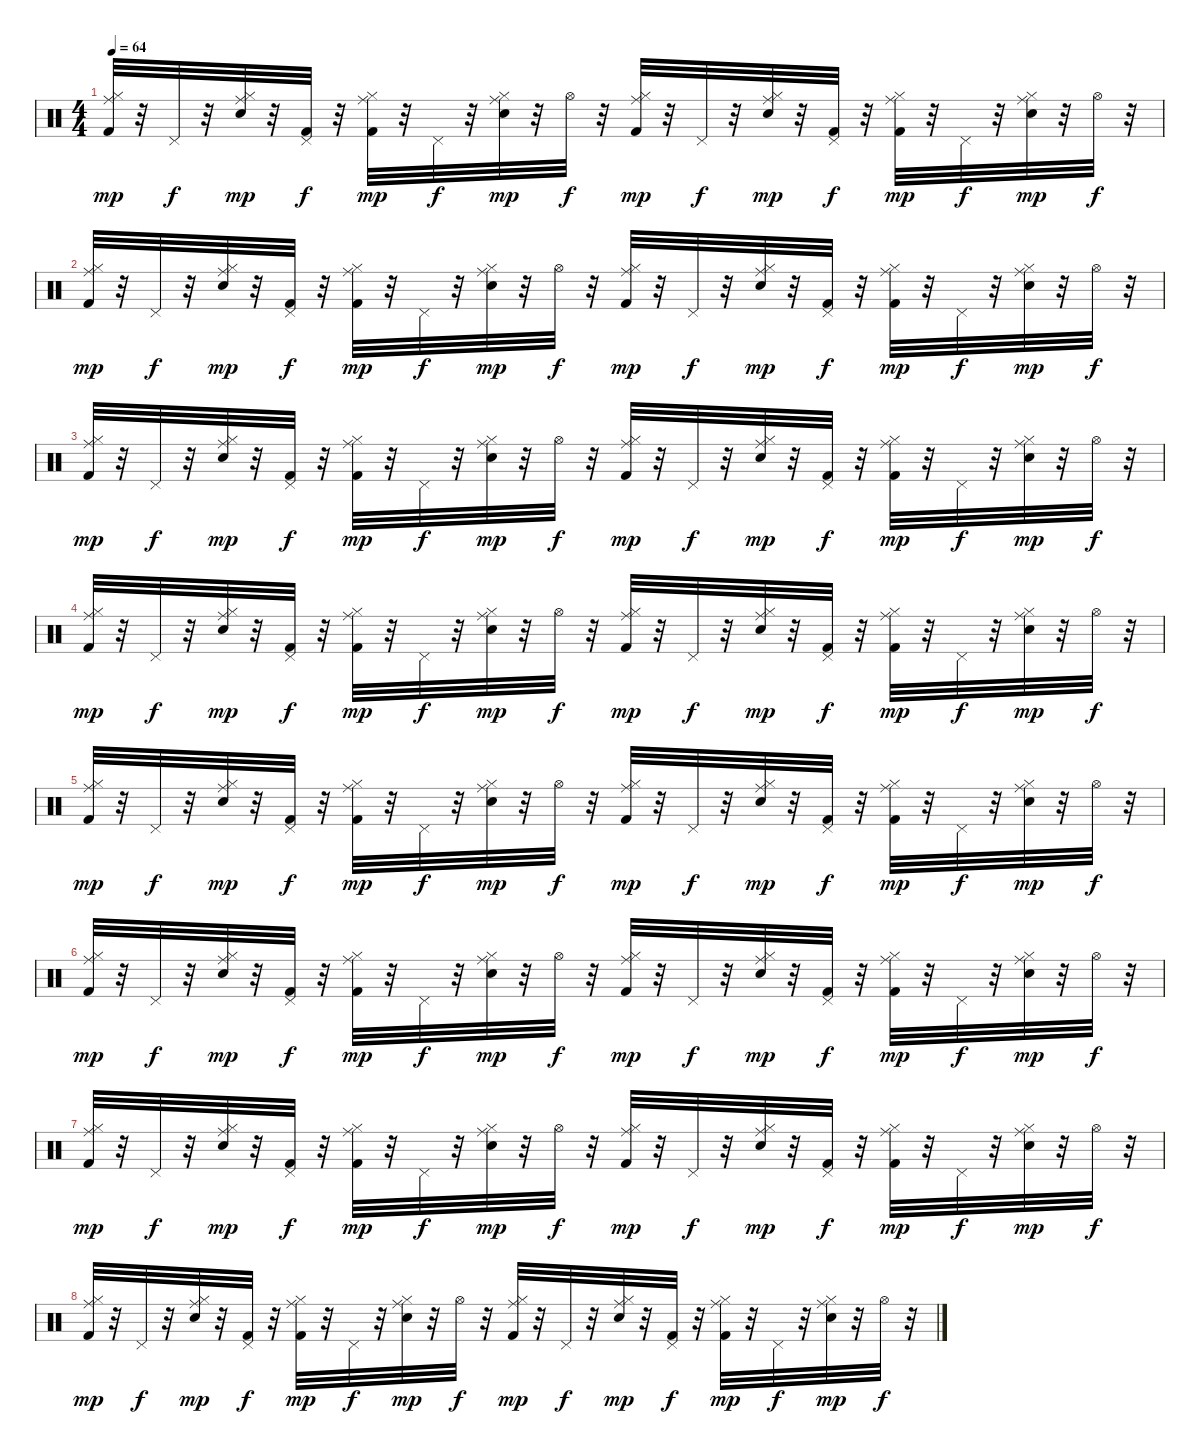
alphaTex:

\track "" {instrument percussion}
\staff {score}
\articulation defaults
\ts (4 4)
\tempo 64
\clef neutral
\ks c
("Ride (middle)" "Hi-Hat (closed)" "Kick (hit) 2").32{dy mp} r.32 "Pedal Hi-Hat (hit)".32{dy f} r.32 ("Ride (middle)" "Hi-Hat (closed)" "Snare (hit) 2").32{dy mp} r.32 ("Pedal Hi-Hat (hit)" "Kick (hit) 2").32{dy f} r.32 ("Ride (middle)" "Hi-Hat (closed)" "Kick (hit) 2").32{dy mp} r.32 "Pedal Hi-Hat (hit)".32{dy f} r.32 ("Snare (hit) 2" "Ride (middle)" "Hi-Hat (closed)").32{dy mp} r.32 "Hi-Hat (open)".32{dy f} r.32 ("Kick (hit) 2" "Hi-Hat (closed)" "Ride (middle)").32{dy mp} r.32 "Pedal Hi-Hat (hit)".32{dy f} r.32 ("Snare (hit) 2" "Hi-Hat (closed)" "Ride (middle)").32{dy mp} r.32 ("Kick (hit) 2" "Pedal Hi-Hat (hit)").32{dy f} r.32 ("Kick (hit) 2" "Hi-Hat (closed)" "Ride (middle)").32{dy mp} r.32 "Pedal Hi-Hat (hit)".32{dy f} r.32 ("Snare (hit) 2" "Hi-Hat (closed)" "Ride (middle)").32{dy mp} r.32 "Hi-Hat (open)".32{dy f} r.32 |
("Ride (middle)" "Hi-Hat (closed)" "Kick (hit) 2").32{dy mp} r.32 "Pedal Hi-Hat (hit)".32{dy f} r.32 ("Ride (middle)" "Hi-Hat (closed)" "Snare (hit) 2").32{dy mp} r.32 ("Pedal Hi-Hat (hit)" "Kick (hit) 2").32{dy f} r.32 ("Ride (middle)" "Hi-Hat (closed)" "Kick (hit) 2").32{dy mp} r.32 "Pedal Hi-Hat (hit)".32{dy f} r.32 ("Snare (hit) 2" "Ride (middle)" "Hi-Hat (closed)").32{dy mp} r.32 "Hi-Hat (open)".32{dy f} r.32 ("Kick (hit) 2" "Hi-Hat (closed)" "Ride (middle)").32{dy mp} r.32 "Pedal Hi-Hat (hit)".32{dy f} r.32 ("Snare (hit) 2" "Hi-Hat (closed)" "Ride (middle)").32{dy mp} r.32 ("Kick (hit) 2" "Pedal Hi-Hat (hit)").32{dy f} r.32 ("Kick (hit) 2" "Hi-Hat (closed)" "Ride (middle)").32{dy mp} r.32 "Pedal Hi-Hat (hit)".32{dy f} r.32 ("Snare (hit) 2" "Hi-Hat (closed)" "Ride (middle)").32{dy mp} r.32 "Hi-Hat (open)".32{dy f} r.32 |
("Ride (middle)" "Hi-Hat (closed)" "Kick (hit) 2").32{dy mp} r.32 "Pedal Hi-Hat (hit)".32{dy f} r.32 ("Ride (middle)" "Hi-Hat (closed)" "Snare (hit) 2").32{dy mp} r.32 ("Pedal Hi-Hat (hit)" "Kick (hit) 2").32{dy f} r.32 ("Ride (middle)" "Hi-Hat (closed)" "Kick (hit) 2").32{dy mp} r.32 "Pedal Hi-Hat (hit)".32{dy f} r.32 ("Snare (hit) 2" "Ride (middle)" "Hi-Hat (closed)").32{dy mp} r.32 "Hi-Hat (open)".32{dy f} r.32 ("Kick (hit) 2" "Hi-Hat (closed)" "Ride (middle)").32{dy mp} r.32 "Pedal Hi-Hat (hit)".32{dy f} r.32 ("Snare (hit) 2" "Hi-Hat (closed)" "Ride (middle)").32{dy mp} r.32 ("Kick (hit) 2" "Pedal Hi-Hat (hit)").32{dy f} r.32 ("Kick (hit) 2" "Hi-Hat (closed)" "Ride (middle)").32{dy mp} r.32 "Pedal Hi-Hat (hit)".32{dy f} r.32 ("Snare (hit) 2" "Hi-Hat (closed)" "Ride (middle)").32{dy mp} r.32 "Hi-Hat (open)".32{dy f} r.32 |
("Ride (middle)" "Hi-Hat (closed)" "Kick (hit) 2").32{dy mp} r.32 "Pedal Hi-Hat (hit)".32{dy f} r.32 ("Ride (middle)" "Hi-Hat (closed)" "Snare (hit) 2").32{dy mp} r.32 ("Pedal Hi-Hat (hit)" "Kick (hit) 2").32{dy f} r.32 ("Ride (middle)" "Hi-Hat (closed)" "Kick (hit) 2").32{dy mp} r.32 "Pedal Hi-Hat (hit)".32{dy f} r.32 ("Snare (hit) 2" "Ride (middle)" "Hi-Hat (closed)").32{dy mp} r.32 "Hi-Hat (open)".32{dy f} r.32 ("Kick (hit) 2" "Hi-Hat (closed)" "Ride (middle)").32{dy mp} r.32 "Pedal Hi-Hat (hit)".32{dy f} r.32 ("Snare (hit) 2" "Hi-Hat (closed)" "Ride (middle)").32{dy mp} r.32 ("Kick (hit) 2" "Pedal Hi-Hat (hit)").32{dy f} r.32 ("Kick (hit) 2" "Hi-Hat (closed)" "Ride (middle)").32{dy mp} r.32 "Pedal Hi-Hat (hit)".32{dy f} r.32 ("Snare (hit) 2" "Hi-Hat (closed)" "Ride (middle)").32{dy mp} r.32 "Hi-Hat (open)".32{dy f} r.32 |
("Ride (middle)" "Hi-Hat (closed)" "Kick (hit) 2").32{dy mp} r.32 "Pedal Hi-Hat (hit)".32{dy f} r.32 ("Ride (middle)" "Hi-Hat (closed)" "Snare (hit) 2").32{dy mp} r.32 ("Pedal Hi-Hat (hit)" "Kick (hit) 2").32{dy f} r.32 ("Ride (middle)" "Hi-Hat (closed)" "Kick (hit) 2").32{dy mp} r.32 "Pedal Hi-Hat (hit)".32{dy f} r.32 ("Snare (hit) 2" "Ride (middle)" "Hi-Hat (closed)").32{dy mp} r.32 "Hi-Hat (open)".32{dy f} r.32 ("Kick (hit) 2" "Hi-Hat (closed)" "Ride (middle)").32{dy mp} r.32 "Pedal Hi-Hat (hit)".32{dy f} r.32 ("Snare (hit) 2" "Hi-Hat (closed)" "Ride (middle)").32{dy mp} r.32 ("Kick (hit) 2" "Pedal Hi-Hat (hit)").32{dy f} r.32 ("Kick (hit) 2" "Hi-Hat (closed)" "Ride (middle)").32{dy mp} r.32 "Pedal Hi-Hat (hit)".32{dy f} r.32 ("Snare (hit) 2" "Hi-Hat (closed)" "Ride (middle)").32{dy mp} r.32 "Hi-Hat (open)".32{dy f} r.32 |
("Ride (middle)" "Hi-Hat (closed)" "Kick (hit) 2").32{dy mp} r.32 "Pedal Hi-Hat (hit)".32{dy f} r.32 ("Ride (middle)" "Hi-Hat (closed)" "Snare (hit) 2").32{dy mp} r.32 ("Pedal Hi-Hat (hit)" "Kick (hit) 2").32{dy f} r.32 ("Ride (middle)" "Hi-Hat (closed)" "Kick (hit) 2").32{dy mp} r.32 "Pedal Hi-Hat (hit)".32{dy f} r.32 ("Snare (hit) 2" "Ride (middle)" "Hi-Hat (closed)").32{dy mp} r.32 "Hi-Hat (open)".32{dy f} r.32 ("Kick (hit) 2" "Hi-Hat (closed)" "Ride (middle)").32{dy mp} r.32 "Pedal Hi-Hat (hit)".32{dy f} r.32 ("Snare (hit) 2" "Hi-Hat (closed)" "Ride (middle)").32{dy mp} r.32 ("Kick (hit) 2" "Pedal Hi-Hat (hit)").32{dy f} r.32 ("Kick (hit) 2" "Hi-Hat (closed)" "Ride (middle)").32{dy mp} r.32 "Pedal Hi-Hat (hit)".32{dy f} r.32 ("Snare (hit) 2" "Hi-Hat (closed)" "Ride (middle)").32{dy mp} r.32 "Hi-Hat (open)".32{dy f} r.32 |
("Ride (middle)" "Hi-Hat (closed)" "Kick (hit) 2").32{dy mp} r.32 "Pedal Hi-Hat (hit)".32{dy f} r.32 ("Ride (middle)" "Hi-Hat (closed)" "Snare (hit) 2").32{dy mp} r.32 ("Pedal Hi-Hat (hit)" "Kick (hit) 2").32{dy f} r.32 ("Ride (middle)" "Hi-Hat (closed)" "Kick (hit) 2").32{dy mp} r.32 "Pedal Hi-Hat (hit)".32{dy f} r.32 ("Snare (hit) 2" "Ride (middle)" "Hi-Hat (closed)").32{dy mp} r.32 "Hi-Hat (open)".32{dy f} r.32 ("Kick (hit) 2" "Hi-Hat (closed)" "Ride (middle)").32{dy mp} r.32 "Pedal Hi-Hat (hit)".32{dy f} r.32 ("Snare (hit) 2" "Hi-Hat (closed)" "Ride (middle)").32{dy mp} r.32 ("Kick (hit) 2" "Pedal Hi-Hat (hit)").32{dy f} r.32 ("Kick (hit) 2" "Hi-Hat (closed)" "Ride (middle)").32{dy mp} r.32 "Pedal Hi-Hat (hit)".32{dy f} r.32 ("Snare (hit) 2" "Hi-Hat (closed)" "Ride (middle)").32{dy mp} r.32 "Hi-Hat (open)".32{dy f} r.32 |
("Ride (middle)" "Hi-Hat (closed)" "Kick (hit) 2").32{dy mp} r.32 "Pedal Hi-Hat (hit)".32{dy f} r.32 ("Ride (middle)" "Hi-Hat (closed)" "Snare (hit) 2").32{dy mp} r.32 ("Pedal Hi-Hat (hit)" "Kick (hit) 2").32{dy f} r.32 ("Ride (middle)" "Hi-Hat (closed)" "Kick (hit) 2").32{dy mp} r.32 "Pedal Hi-Hat (hit)".32{dy f} r.32 ("Snare (hit) 2" "Ride (middle)" "Hi-Hat (closed)").32{dy mp} r.32 "Hi-Hat (open)".32{dy f} r.32 ("Kick (hit) 2" "Hi-Hat (closed)" "Ride (middle)").32{dy mp} r.32 "Pedal Hi-Hat (hit)".32{dy f} r.32 ("Snare (hit) 2" "Hi-Hat (closed)" "Ride (middle)").32{dy mp} r.32 ("Kick (hit) 2" "Pedal Hi-Hat (hit)").32{dy f} r.32 ("Kick (hit) 2" "Hi-Hat (closed)" "Ride (middle)").32{dy mp} r.32 "Pedal Hi-Hat (hit)".32{dy f} r.32 ("Snare (hit) 2" "Hi-Hat (closed)" "Ride (middle)").32{dy mp} r.32 "Hi-Hat (open)".32{dy f} r.32
